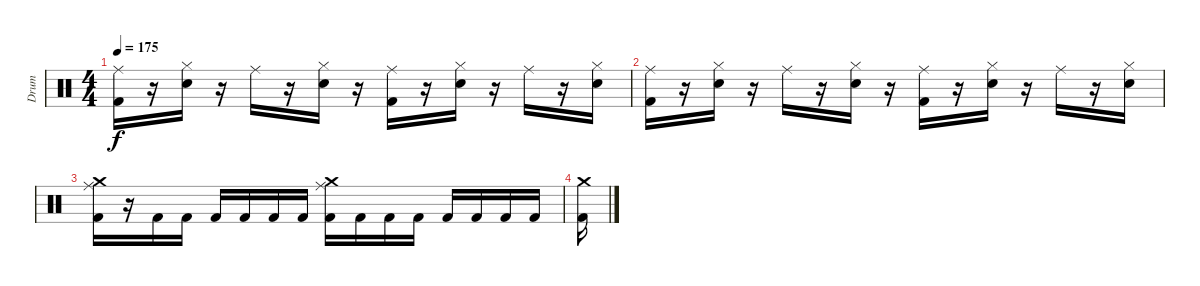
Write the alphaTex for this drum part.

\track ("Drum" "Drum") {instrument percussion}
\staff {score}
\articulation defaults
\ts (4 4)
\tempo 175
\clef neutral
\ks c
("Ride (middle)" "Kick (hit) 2").16{dy f} r.16 ("Hi-Hat (closed)" "Electric Snare (hit)").16 r.16 "Ride (middle)".16 r.16 ("Hi-Hat (closed)" "Electric Snare (hit)").16 r.16 ("Ride (middle)" "Kick (hit) 2").16 r.16 ("Hi-Hat (closed)" "Electric Snare (hit)").16 r.16 "Ride (middle)".16 r.16 ("Hi-Hat (closed)" "Electric Snare (hit)").16 |
("Ride (middle)" "Kick (hit) 2").16 r.16 ("Hi-Hat (closed)" "Electric Snare (hit)").16 r.16 "Ride (middle)".16 r.16 ("Hi-Hat (closed)" "Electric Snare (hit)").16 r.16 ("Ride (middle)" "Kick (hit) 2").16 r.16 ("Hi-Hat (closed)" "Electric Snare (hit)").16 r.16 "Ride (middle)".16 r.16 ("Hi-Hat (closed)" "Electric Snare (hit)").16 |
("Ride (middle)" "Kick (hit) 2" "Crash medium (hit)").16 r.16 "Kick (hit) 2".16 "Kick (hit) 2".16 "Kick (hit) 2".16 "Kick (hit) 2".16 "Kick (hit) 2".16 "Kick (hit) 2".16 ("Ride (middle)" "Kick (hit) 2" "Crash medium (hit)").16 "Kick (hit) 2".16 "Kick (hit) 2".16 "Kick (hit) 2".16 "Kick (hit) 2".16 "Kick (hit) 2".16 "Kick (hit) 2".16 "Kick (hit) 2".16 |
("Kick (hit) 2" "Crash medium (hit)").16
